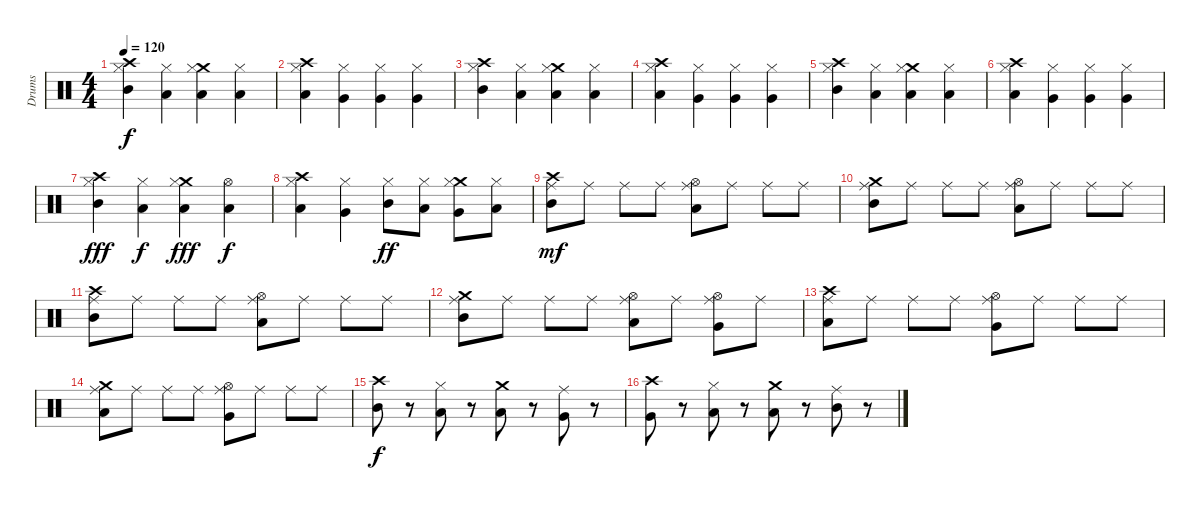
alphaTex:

\track ("Drums" "Drums") {instrument percussion}
\staff {score}
\articulation defaults
\ts (4 4)
\tempo 120
\clef neutral
\ks c
("Crash high (hit)" "Hi-Hat (closed)" "Mid Tom (hit)").4{dy f} ("Hi-Hat (closed)" "Low Tom (hit)").4 ("Crash medium (hit)" "Hi-Hat (closed)" "Low Tom (hit)").4 ("Hi-Hat (closed)" "Low Tom (hit)").4 |
("Crash high (hit)" "Hi-Hat (closed)" "Low Tom (hit)").4 ("Hi-Hat (closed)" "Very Low Tom (hit)").4 ("Hi-Hat (closed)" "Very Low Tom (hit)").4 ("Hi-Hat (closed)" "Very Low Tom (hit)").4 |
("Crash high (hit)" "Hi-Hat (closed)" "Mid Tom (hit)").4 ("Hi-Hat (closed)" "Low Tom (hit)").4 ("Crash medium (hit)" "Hi-Hat (closed)" "Low Tom (hit)").4 ("Hi-Hat (closed)" "Low Tom (hit)").4 |
("Crash high (hit)" "Hi-Hat (closed)" "Low Tom (hit)").4 ("Hi-Hat (closed)" "Very Low Tom (hit)").4 ("Hi-Hat (closed)" "Very Low Tom (hit)").4 ("Hi-Hat (closed)" "Very Low Tom (hit)").4 |
("Crash high (hit)" "Hi-Hat (closed)" "Mid Tom (hit)").4 ("Hi-Hat (closed)" "Low Tom (hit)").4 ("Crash medium (hit)" "Hi-Hat (closed)" "Low Tom (hit)").4 ("Hi-Hat (closed)" "Low Tom (hit)").4 |
("Crash high (hit)" "Hi-Hat (closed)" "Low Tom (hit)").4 ("Hi-Hat (closed)" "Very Low Tom (hit)").4 ("Hi-Hat (closed)" "Very Low Tom (hit)").4 ("Hi-Hat (closed)" "Very Low Tom (hit)").4 |
("Crash high (hit)" "Hi-Hat (closed)" "Mid Tom (hit)").4{dy fff} ("Hi-Hat (closed)" "Low Tom (hit)").4{dy f} ("Crash medium (hit)" "Hi-Hat (closed)" "Low Tom (hit)").4{dy fff} ("Hi-Hat (open)" "Low Tom (hit)").4{dy f} |
("Crash high (hit)" "Hi-Hat (closed)" "Low Tom (hit)").4 ("Hi-Hat (closed)" "Very Low Tom (hit)").4 ("Hi-Hat (closed)" "Mid Tom (hit)").8{dy ff} ("Hi-Hat (closed)" "Low Tom (hit)").8 ("Crash medium (hit)" "Hi-Hat (closed)" "Very Low Tom (hit)").8 ("Hi-Hat (closed)" "Low Floor Tom (hit)").8 |
("Crash high (hit)" "Ride (middle)" "Mid Tom (hit)").8{dy mf} "Ride (middle)".8 "Ride (middle)".8 "Ride (middle)".8 ("Hi-Hat (open)" "Ride (middle)" "Low Tom (hit)").8 "Ride (middle)".8 "Ride (middle)".8 "Ride (middle)".8 |
("Crash medium (hit)" "Ride (middle)" "Mid Tom (hit)").8 "Ride (middle)".8 "Ride (middle)".8 "Ride (middle)".8 ("Hi-Hat (open)" "Ride (middle)" "Low Tom (hit)").8 "Ride (middle)".8 "Ride (middle)".8 "Ride (middle)".8 |
("Crash high (hit)" "Ride (middle)" "Mid Tom (hit)").8 "Ride (middle)".8 "Ride (middle)".8 "Ride (middle)".8 ("Hi-Hat (open)" "Ride (middle)" "Low Tom (hit)").8 "Ride (middle)".8 "Ride (middle)".8 "Ride (middle)".8 |
("Crash medium (hit)" "Ride (middle)" "Mid Tom (hit)").8 "Ride (middle)".8 "Ride (middle)".8 "Ride (middle)".8 ("Hi-Hat (open)" "Ride (middle)" "Low Tom (hit)").8 "Ride (middle)".8 ("Hi-Hat (open)" "Ride (middle)" "Very Low Tom (hit)").8 "Ride (middle)".8 |
("Crash high (hit)" "Ride (middle)" "Low Tom (hit)").8 "Ride (middle)".8 "Ride (middle)".8 "Ride (middle)".8 ("Hi-Hat (open)" "Ride (middle)" "Very Low Tom (hit)").8 "Ride (middle)".8 "Ride (middle)".8 "Ride (middle)".8 |
("Crash medium (hit)" "Ride (middle)" "Low Tom (hit)").8 "Ride (middle)".8 "Ride (middle)".8 "Ride (middle)".8 ("Hi-Hat (open)" "Ride (middle)" "Very Low Tom (hit)").8 "Ride (middle)".8 "Ride (middle)".8 "Ride (middle)".8 |
("Crash high (hit)" "Mid Tom (hit)").8{dy f} r.8 ("Hi-Hat (closed)" "Low Tom (hit)").8 r.8 ("Crash medium (hit)" "Low Tom (hit)").8 r.8 ("Ride (middle)" "Very Low Tom (hit)").8 r.8 |
("Crash high (hit)" "Very Low Tom (hit)").8 r.8 ("Hi-Hat (closed)" "Low Tom (hit)").8 r.8 ("Crash medium (hit)" "Low Tom (hit)").8 r.8 ("Ride (middle)" "Mid Tom (hit)").8 r.8
